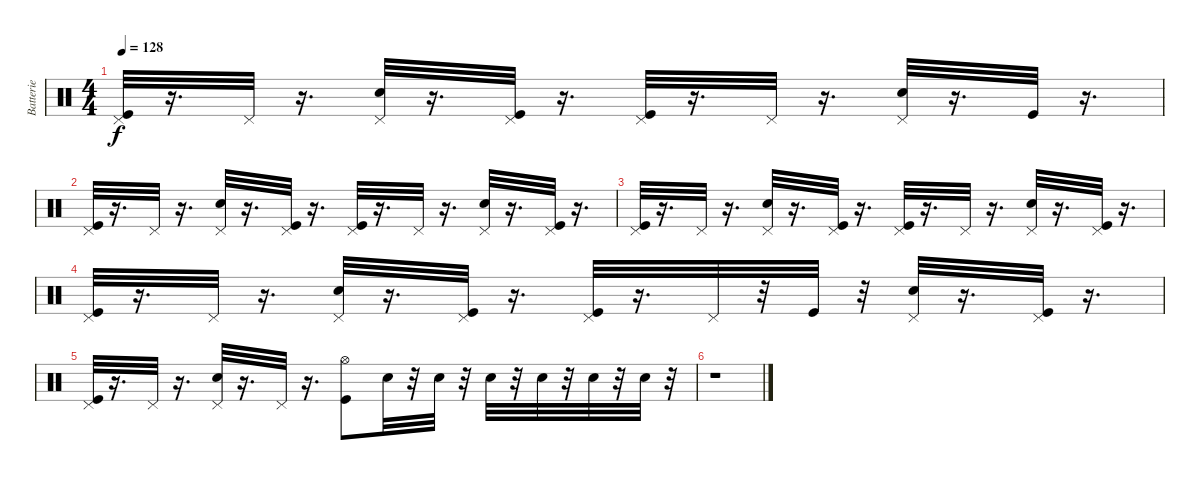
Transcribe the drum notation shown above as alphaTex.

\track ("Batterie" "Batterie") {instrument percussion}
\staff {score}
\articulation defaults
\ts (4 4)
\tempo 128
\clef neutral
\ks c
("Pedal Hi-Hat (hit)" "Kick (hit)").32{dy f volume 7} r.16{d} "Pedal Hi-Hat (hit)".32{volume 7} r.16{d} ("Pedal Hi-Hat (hit)" "Snare (hit) 2").32{volume 7} r.16{d} ("Pedal Hi-Hat (hit)" "Kick (hit)").32{volume 7} r.16{d} ("Pedal Hi-Hat (hit)" "Kick (hit)").32{volume 6} r.16{d} "Pedal Hi-Hat (hit)".32{volume 6} r.16{d} ("Pedal Hi-Hat (hit)" "Snare (hit) 2").32{volume 6} r.16{d} "Kick (hit)".32{volume 6} r.16{d} |
("Pedal Hi-Hat (hit)" "Kick (hit)").32{volume 6} r.16{d} "Pedal Hi-Hat (hit)".32{volume 6} r.16{d} ("Pedal Hi-Hat (hit)" "Snare (hit) 2").32{volume 6} r.16{d} ("Kick (hit)" "Pedal Hi-Hat (hit)").32{volume 5} r.16{d} ("Pedal Hi-Hat (hit)" "Kick (hit)").32{volume 5} r.16{d} "Pedal Hi-Hat (hit)".32{volume 5} r.16{d} ("Pedal Hi-Hat (hit)" "Snare (hit) 2").32{volume 5} r.16{d} ("Kick (hit)" "Pedal Hi-Hat (hit)").32{volume 5} r.16{d} |
("Pedal Hi-Hat (hit)" "Kick (hit)").32{volume 4} r.16{d} "Pedal Hi-Hat (hit)".32{volume 4} r.16{d} ("Pedal Hi-Hat (hit)" "Snare (hit) 2").32{volume 4} r.16{d} ("Pedal Hi-Hat (hit)" "Kick (hit)").32{volume 4} r.16{d} ("Pedal Hi-Hat (hit)" "Kick (hit)").32{volume 4} r.16{d} "Pedal Hi-Hat (hit)".32{volume 4} r.16{d} ("Pedal Hi-Hat (hit)" "Snare (hit) 2").32{volume 3} r.16{d} ("Pedal Hi-Hat (hit)" "Kick (hit)").32{volume 3} r.16{d} |
("Pedal Hi-Hat (hit)" "Kick (hit)").32{volume 3} r.16{d} "Pedal Hi-Hat (hit)".32{volume 3} r.16{d} ("Pedal Hi-Hat (hit)" "Snare (hit) 2").32{volume 3} r.16{d} ("Kick (hit)" "Pedal Hi-Hat (hit)").32{volume 2} r.16{d} ("Pedal Hi-Hat (hit)" "Kick (hit)").32{volume 2} r.16{d} "Pedal Hi-Hat (hit)".32{volume 2} r.32 "Kick (hit)".32 r.32 ("Pedal Hi-Hat (hit)" "Snare (hit) 2").32{volume 2} r.16{d} ("Kick (hit)" "Pedal Hi-Hat (hit)").32{volume 2} r.16{d} |
("Pedal Hi-Hat (hit)" "Kick (hit)").32{volume 2} r.16{d} "Pedal Hi-Hat (hit)".32{volume 1} r.16{d} ("Pedal Hi-Hat (hit)" "Snare (hit) 2").32{volume 1} r.16{d} "Pedal Hi-Hat (hit)".32{volume 1} r.16{d} ("Hi-Hat (open)" "Kick (hit)").8{volume 1} "Snare (hit) 2".32{volume 1} r.32 "Snare (hit) 2".32{volume 0} r.32 "Snare (hit) 2".32{volume 0} r.32 "Snare (hit) 2".32 r.32 "Snare (hit) 2".32{volume 0} r.32 "Snare (hit) 2".32{volume 0} r.32 |
r.1
